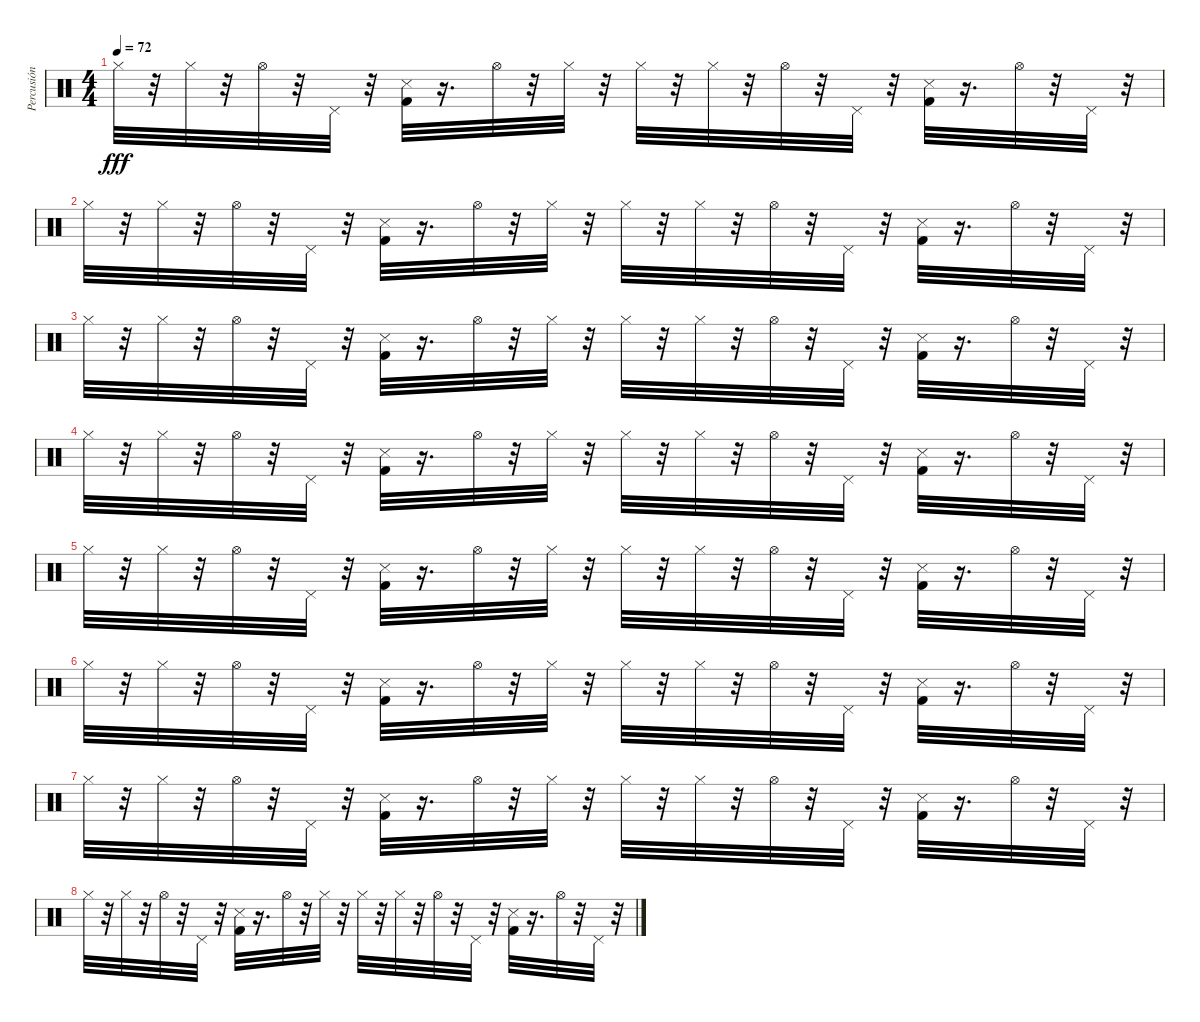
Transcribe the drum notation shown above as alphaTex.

\track ("Percusión" "Percusión") {instrument percussion}
\staff {score}
\articulation defaults
\ts (4 4)
\tempo 72
\clef neutral
\ks c "Hi-Hat (closed)".32{dy fff}
r.32 "Hi-Hat (closed)".32 r.32 "Hi-Hat (open)".32 r.32 "Pedal Hi-Hat (hit)".32 r.32 ("Kick (hit) 2" "Snare (side stick) 3").32 r.16{d} "Hi-Hat (open)".32 r.32 "Hi-Hat (closed)".32 r.32 "Hi-Hat (closed)".32 r.32 "Hi-Hat (closed)".32 r.32 "Hi-Hat (open)".32 r.32 "Pedal Hi-Hat (hit)".32 r.32 ("Kick (hit) 2" "Snare (side stick) 3").32 r.16{d} "Hi-Hat (open)".32 r.32 "Pedal Hi-Hat (hit)".32 r.32 |
"Hi-Hat (closed)".32 r.32 "Hi-Hat (closed)".32 r.32 "Hi-Hat (open)".32 r.32 "Pedal Hi-Hat (hit)".32 r.32 ("Kick (hit) 2" "Snare (side stick) 3").32 r.16{d} "Hi-Hat (open)".32 r.32 "Hi-Hat (closed)".32 r.32 "Hi-Hat (closed)".32 r.32 "Hi-Hat (closed)".32 r.32 "Hi-Hat (open)".32 r.32 "Pedal Hi-Hat (hit)".32 r.32 ("Kick (hit) 2" "Snare (side stick) 3").32 r.16{d} "Hi-Hat (open)".32 r.32 "Pedal Hi-Hat (hit)".32 r.32 |
"Hi-Hat (closed)".32 r.32 "Hi-Hat (closed)".32 r.32 "Hi-Hat (open)".32 r.32 "Pedal Hi-Hat (hit)".32 r.32 ("Kick (hit) 2" "Snare (side stick) 3").32 r.16{d} "Hi-Hat (open)".32 r.32 "Hi-Hat (closed)".32 r.32 "Hi-Hat (closed)".32 r.32 "Hi-Hat (closed)".32 r.32 "Hi-Hat (open)".32 r.32 "Pedal Hi-Hat (hit)".32 r.32 ("Kick (hit) 2" "Snare (side stick) 3").32 r.16{d} "Hi-Hat (open)".32 r.32 "Pedal Hi-Hat (hit)".32 r.32 |
"Hi-Hat (closed)".32 r.32 "Hi-Hat (closed)".32 r.32 "Hi-Hat (open)".32 r.32 "Pedal Hi-Hat (hit)".32 r.32 ("Kick (hit) 2" "Snare (side stick) 3").32 r.16{d} "Hi-Hat (open)".32 r.32 "Hi-Hat (closed)".32 r.32 "Hi-Hat (closed)".32 r.32 "Hi-Hat (closed)".32 r.32 "Hi-Hat (open)".32 r.32 "Pedal Hi-Hat (hit)".32 r.32 ("Kick (hit) 2" "Snare (side stick) 3").32 r.16{d} "Hi-Hat (open)".32 r.32 "Pedal Hi-Hat (hit)".32 r.32 |
"Hi-Hat (closed)".32 r.32 "Hi-Hat (closed)".32 r.32 "Hi-Hat (open)".32 r.32 "Pedal Hi-Hat (hit)".32 r.32 ("Kick (hit) 2" "Snare (side stick) 3").32 r.16{d} "Hi-Hat (open)".32 r.32 "Hi-Hat (closed)".32 r.32 "Hi-Hat (closed)".32 r.32 "Hi-Hat (closed)".32 r.32 "Hi-Hat (open)".32 r.32 "Pedal Hi-Hat (hit)".32 r.32 ("Kick (hit) 2" "Snare (side stick) 3").32 r.16{d} "Hi-Hat (open)".32 r.32 "Pedal Hi-Hat (hit)".32 r.32 |
"Hi-Hat (closed)".32 r.32 "Hi-Hat (closed)".32 r.32 "Hi-Hat (open)".32 r.32 "Pedal Hi-Hat (hit)".32 r.32 ("Kick (hit) 2" "Snare (side stick) 3").32 r.16{d} "Hi-Hat (open)".32 r.32 "Hi-Hat (closed)".32 r.32 "Hi-Hat (closed)".32 r.32 "Hi-Hat (closed)".32 r.32 "Hi-Hat (open)".32 r.32 "Pedal Hi-Hat (hit)".32 r.32 ("Kick (hit) 2" "Snare (side stick) 3").32 r.16{d} "Hi-Hat (open)".32 r.32 "Pedal Hi-Hat (hit)".32 r.32 |
"Hi-Hat (closed)".32 r.32 "Hi-Hat (closed)".32 r.32 "Hi-Hat (open)".32 r.32 "Pedal Hi-Hat (hit)".32 r.32 ("Kick (hit) 2" "Snare (side stick) 3").32 r.16{d} "Hi-Hat (open)".32 r.32 "Hi-Hat (closed)".32 r.32 "Hi-Hat (closed)".32 r.32 "Hi-Hat (closed)".32 r.32 "Hi-Hat (open)".32 r.32 "Pedal Hi-Hat (hit)".32 r.32 ("Kick (hit) 2" "Snare (side stick) 3").32 r.16{d} "Hi-Hat (open)".32 r.32 "Pedal Hi-Hat (hit)".32 r.32 |
"Hi-Hat (closed)".32 r.32 "Hi-Hat (closed)".32 r.32 "Hi-Hat (open)".32 r.32 "Pedal Hi-Hat (hit)".32 r.32 ("Kick (hit) 2" "Snare (side stick) 3").32 r.16{d} "Hi-Hat (open)".32 r.32 "Hi-Hat (closed)".32 r.32 "Hi-Hat (closed)".32 r.32 "Hi-Hat (closed)".32 r.32 "Hi-Hat (open)".32 r.32 "Pedal Hi-Hat (hit)".32 r.32 ("Kick (hit) 2" "Snare (side stick) 3").32 r.16{d} "Hi-Hat (open)".32 r.32 "Pedal Hi-Hat (hit)".32 r.32
